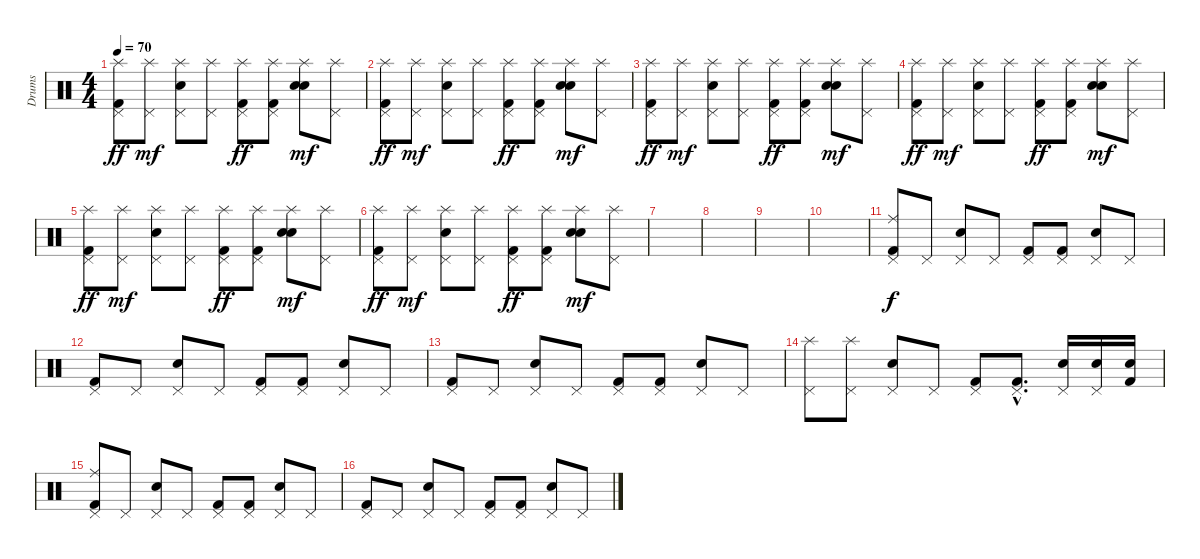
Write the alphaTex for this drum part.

\track ("Drums" "Drums") {instrument percussion}
\staff {score}
\articulation defaults
\ts (4 4)
\tempo 70
\clef neutral
\ks c
("Splash (hit)" "Pedal Hi-Hat (hit)" "Kick (hit) 2").8{dy ff} ("Splash (hit)" "Pedal Hi-Hat (hit)").8{dy mf} ("Splash (hit)" "Pedal Hi-Hat (hit)" "Snare (hit) 2").8 ("Splash (hit)" "Pedal Hi-Hat (hit)").8 ("Splash (hit)" "Pedal Hi-Hat (hit)" "Kick (hit) 2").8{dy ff} ("Splash (hit)" "Pedal Hi-Hat (hit)" "Kick (hit) 2").8 ("Splash (hit)" "Electric Snare (hit)" "Snare (hit) 2").8{dy mf} ("Splash (hit)" "Pedal Hi-Hat (hit)").8 |
("Splash (hit)" "Pedal Hi-Hat (hit)" "Kick (hit) 2").8{dy ff} ("Splash (hit)" "Pedal Hi-Hat (hit)").8{dy mf} ("Splash (hit)" "Pedal Hi-Hat (hit)" "Snare (hit) 2").8 ("Splash (hit)" "Pedal Hi-Hat (hit)").8 ("Splash (hit)" "Pedal Hi-Hat (hit)" "Kick (hit) 2").8{dy ff} ("Splash (hit)" "Pedal Hi-Hat (hit)" "Kick (hit) 2").8 ("Splash (hit)" "Electric Snare (hit)" "Snare (hit) 2").8{dy mf} ("Splash (hit)" "Pedal Hi-Hat (hit)").8 |
("Splash (hit)" "Pedal Hi-Hat (hit)" "Kick (hit) 2").8{dy ff} ("Splash (hit)" "Pedal Hi-Hat (hit)").8{dy mf} ("Splash (hit)" "Pedal Hi-Hat (hit)" "Snare (hit) 2").8 ("Splash (hit)" "Pedal Hi-Hat (hit)").8 ("Splash (hit)" "Pedal Hi-Hat (hit)" "Kick (hit) 2").8{dy ff} ("Splash (hit)" "Pedal Hi-Hat (hit)" "Kick (hit) 2").8 ("Splash (hit)" "Electric Snare (hit)" "Snare (hit) 2").8{dy mf} ("Splash (hit)" "Pedal Hi-Hat (hit)").8 |
("Splash (hit)" "Pedal Hi-Hat (hit)" "Kick (hit) 2").8{dy ff} ("Splash (hit)" "Pedal Hi-Hat (hit)").8{dy mf} ("Splash (hit)" "Pedal Hi-Hat (hit)" "Snare (hit) 2").8 ("Splash (hit)" "Pedal Hi-Hat (hit)").8 ("Splash (hit)" "Pedal Hi-Hat (hit)" "Kick (hit) 2").8{dy ff} ("Splash (hit)" "Pedal Hi-Hat (hit)" "Kick (hit) 2").8 ("Splash (hit)" "Electric Snare (hit)" "Snare (hit) 2").8{dy mf} ("Splash (hit)" "Pedal Hi-Hat (hit)").8 |
("Splash (hit)" "Pedal Hi-Hat (hit)" "Kick (hit) 2").8{dy ff} ("Splash (hit)" "Pedal Hi-Hat (hit)").8{dy mf} ("Splash (hit)" "Pedal Hi-Hat (hit)" "Snare (hit) 2").8 ("Splash (hit)" "Pedal Hi-Hat (hit)").8 ("Splash (hit)" "Pedal Hi-Hat (hit)" "Kick (hit) 2").8{dy ff} ("Splash (hit)" "Pedal Hi-Hat (hit)" "Kick (hit) 2").8 ("Splash (hit)" "Electric Snare (hit)" "Snare (hit) 2").8{dy mf} ("Splash (hit)" "Pedal Hi-Hat (hit)").8 |
("Splash (hit)" "Pedal Hi-Hat (hit)" "Kick (hit) 2").8{dy ff} ("Splash (hit)" "Pedal Hi-Hat (hit)").8{dy mf} ("Splash (hit)" "Pedal Hi-Hat (hit)" "Snare (hit) 2").8 ("Splash (hit)" "Pedal Hi-Hat (hit)").8 ("Splash (hit)" "Pedal Hi-Hat (hit)" "Kick (hit) 2").8{dy ff} ("Splash (hit)" "Pedal Hi-Hat (hit)" "Kick (hit) 2").8 ("Splash (hit)" "Electric Snare (hit)" "Snare (hit) 2").8{dy mf} ("Splash (hit)" "Pedal Hi-Hat (hit)").8 |
|
|
|
|
("Pedal Hi-Hat (hit)" "Ride (middle)" "Kick (hit) 2").8{dy f} "Pedal Hi-Hat (hit)".8 ("Pedal Hi-Hat (hit)" "Snare (hit) 2").8 "Pedal Hi-Hat (hit)".8 ("Pedal Hi-Hat (hit)" "Kick (hit) 2").8 ("Pedal Hi-Hat (hit)" "Kick (hit) 2").8 ("Pedal Hi-Hat (hit)" "Snare (hit) 2").8 "Pedal Hi-Hat (hit)".8 |
("Pedal Hi-Hat (hit)" "Kick (hit) 2").8 "Pedal Hi-Hat (hit)".8 ("Pedal Hi-Hat (hit)" "Snare (hit) 2").8 "Pedal Hi-Hat (hit)".8 ("Pedal Hi-Hat (hit)" "Kick (hit) 2").8 ("Pedal Hi-Hat (hit)" "Kick (hit) 2").8 ("Pedal Hi-Hat (hit)" "Snare (hit) 2").8 "Pedal Hi-Hat (hit)".8 |
("Pedal Hi-Hat (hit)" "Kick (hit) 2").8 "Pedal Hi-Hat (hit)".8 ("Pedal Hi-Hat (hit)" "Snare (hit) 2").8 "Pedal Hi-Hat (hit)".8 ("Pedal Hi-Hat (hit)" "Kick (hit) 2").8 ("Pedal Hi-Hat (hit)" "Kick (hit) 2").8 ("Pedal Hi-Hat (hit)" "Snare (hit) 2").8 "Pedal Hi-Hat (hit)".8 |
("Splash (hit)" "Pedal Hi-Hat (hit)").8 ("Splash (hit)" "Pedal Hi-Hat (hit)").8 ("Pedal Hi-Hat (hit)" "Electric Snare (hit)").8 "Pedal Hi-Hat (hit)".8 ("Pedal Hi-Hat (hit)" "Kick (hit) 2").8 ("Pedal Hi-Hat (hit)"{hac} "Kick (hit) 2"{hac}).8{d} ("Pedal Hi-Hat (hit)" "Snare (hit) 2").16 ("Pedal Hi-Hat (hit)" "Electric Snare (hit)").16 ("Kick (hit) 2" "Electric Snare (hit)").16 |
("Ride (middle)" "Pedal Hi-Hat (hit)" "Kick (hit) 2").8 "Pedal Hi-Hat (hit)".8 ("Pedal Hi-Hat (hit)" "Snare (hit) 2").8 "Pedal Hi-Hat (hit)".8 ("Pedal Hi-Hat (hit)" "Kick (hit) 2").8 ("Pedal Hi-Hat (hit)" "Kick (hit) 2").8 ("Pedal Hi-Hat (hit)" "Snare (hit) 2").8 "Pedal Hi-Hat (hit)".8 |
("Pedal Hi-Hat (hit)" "Kick (hit) 2").8 "Pedal Hi-Hat (hit)".8 ("Pedal Hi-Hat (hit)" "Snare (hit) 2").8 "Pedal Hi-Hat (hit)".8 ("Pedal Hi-Hat (hit)" "Kick (hit) 2").8 ("Pedal Hi-Hat (hit)" "Kick (hit) 2").8 ("Pedal Hi-Hat (hit)" "Snare (hit) 2").8 "Pedal Hi-Hat (hit)".8
